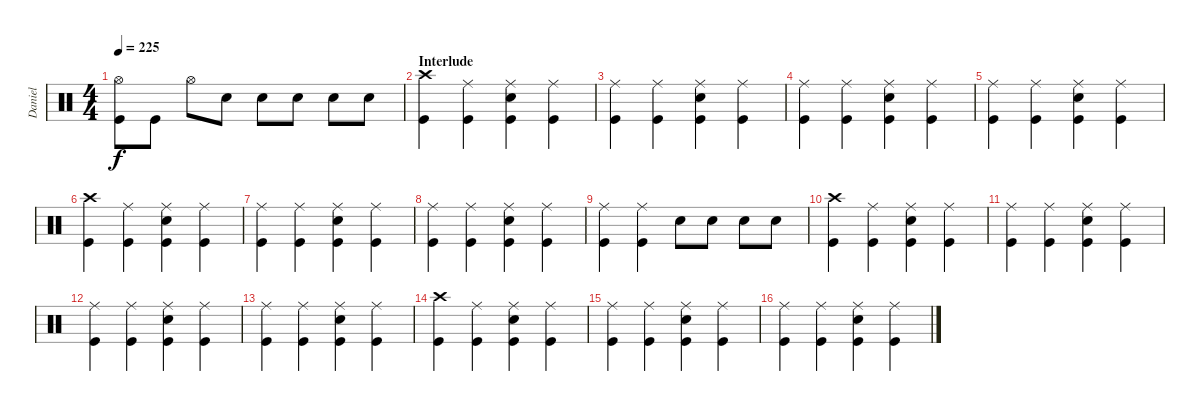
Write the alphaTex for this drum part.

\track ("Daniel" "Daniel") {instrument percussion}
\staff {score}
\articulation defaults
\ts (4 4)
\tempo 225
\clef neutral
\ks c
("Hi-Hat (open)" "Kick (hit)").8{dy f} "Kick (hit)".8 "Hi-Hat (open)".8 "Snare (hit) 2".8 "Snare (hit) 2".8 "Snare (hit) 2".8 "Snare (hit) 2".8 "Snare (hit) 2".8 |
\section ("" "Interlude")
("Crash high (hit)" "Kick (hit)").4 ("Ride (middle)" "Kick (hit)").4 ("Ride (middle)" "Snare (hit) 2" "Kick (hit)").4 ("Ride (middle)" "Kick (hit)").4 |
("Ride (middle)" "Kick (hit)").4 ("Ride (middle)" "Kick (hit)").4 ("Ride (middle)" "Snare (hit) 2" "Kick (hit)").4 ("Ride (middle)" "Kick (hit)").4 |
("Ride (middle)" "Kick (hit)").4 ("Ride (middle)" "Kick (hit)").4 ("Ride (middle)" "Snare (hit) 2" "Kick (hit)").4 ("Ride (middle)" "Kick (hit)").4 |
("Ride (middle)" "Kick (hit)").4 ("Ride (middle)" "Kick (hit)").4 ("Ride (middle)" "Snare (hit) 2" "Kick (hit)").4 ("Ride (middle)" "Kick (hit)").4 |
("Crash high (hit)" "Kick (hit)").4 ("Ride (middle)" "Kick (hit)").4 ("Ride (middle)" "Snare (hit) 2" "Kick (hit)").4 ("Ride (middle)" "Kick (hit)").4 |
("Ride (middle)" "Kick (hit)").4 ("Ride (middle)" "Kick (hit)").4 ("Ride (middle)" "Snare (hit) 2" "Kick (hit)").4 ("Ride (middle)" "Kick (hit)").4 |
("Ride (middle)" "Kick (hit)").4 ("Ride (middle)" "Kick (hit)").4 ("Ride (middle)" "Snare (hit) 2" "Kick (hit)").4 ("Ride (middle)" "Kick (hit)").4 |
("Ride (middle)" "Kick (hit)").4 ("Ride (middle)" "Kick (hit)").4 "Snare (hit) 2".8 "Snare (hit) 2".8 "Snare (hit) 2".8 "Snare (hit) 2".8 |
("Crash high (hit)" "Kick (hit)").4 ("Ride (middle)" "Kick (hit)").4 ("Ride (middle)" "Snare (hit) 2" "Kick (hit)").4 ("Ride (middle)" "Kick (hit)").4 |
("Ride (middle)" "Kick (hit)").4 ("Ride (middle)" "Kick (hit)").4 ("Ride (middle)" "Snare (hit) 2" "Kick (hit)").4 ("Ride (middle)" "Kick (hit)").4 |
("Ride (middle)" "Kick (hit)").4 ("Ride (middle)" "Kick (hit)").4 ("Ride (middle)" "Snare (hit) 2" "Kick (hit)").4 ("Ride (middle)" "Kick (hit)").4 |
("Ride (middle)" "Kick (hit)").4 ("Ride (middle)" "Kick (hit)").4 ("Ride (middle)" "Snare (hit) 2" "Kick (hit)").4 ("Ride (middle)" "Kick (hit)").4 |
("Crash high (hit)" "Kick (hit)").4 ("Ride (middle)" "Kick (hit)").4 ("Ride (middle)" "Snare (hit) 2" "Kick (hit)").4 ("Ride (middle)" "Kick (hit)").4 |
("Ride (middle)" "Kick (hit)").4 ("Ride (middle)" "Kick (hit)").4 ("Ride (middle)" "Snare (hit) 2" "Kick (hit)").4 ("Ride (middle)" "Kick (hit)").4 |
("Ride (middle)" "Kick (hit)").4 ("Ride (middle)" "Kick (hit)").4 ("Ride (middle)" "Snare (hit) 2" "Kick (hit)").4 ("Ride (middle)" "Kick (hit)").4
